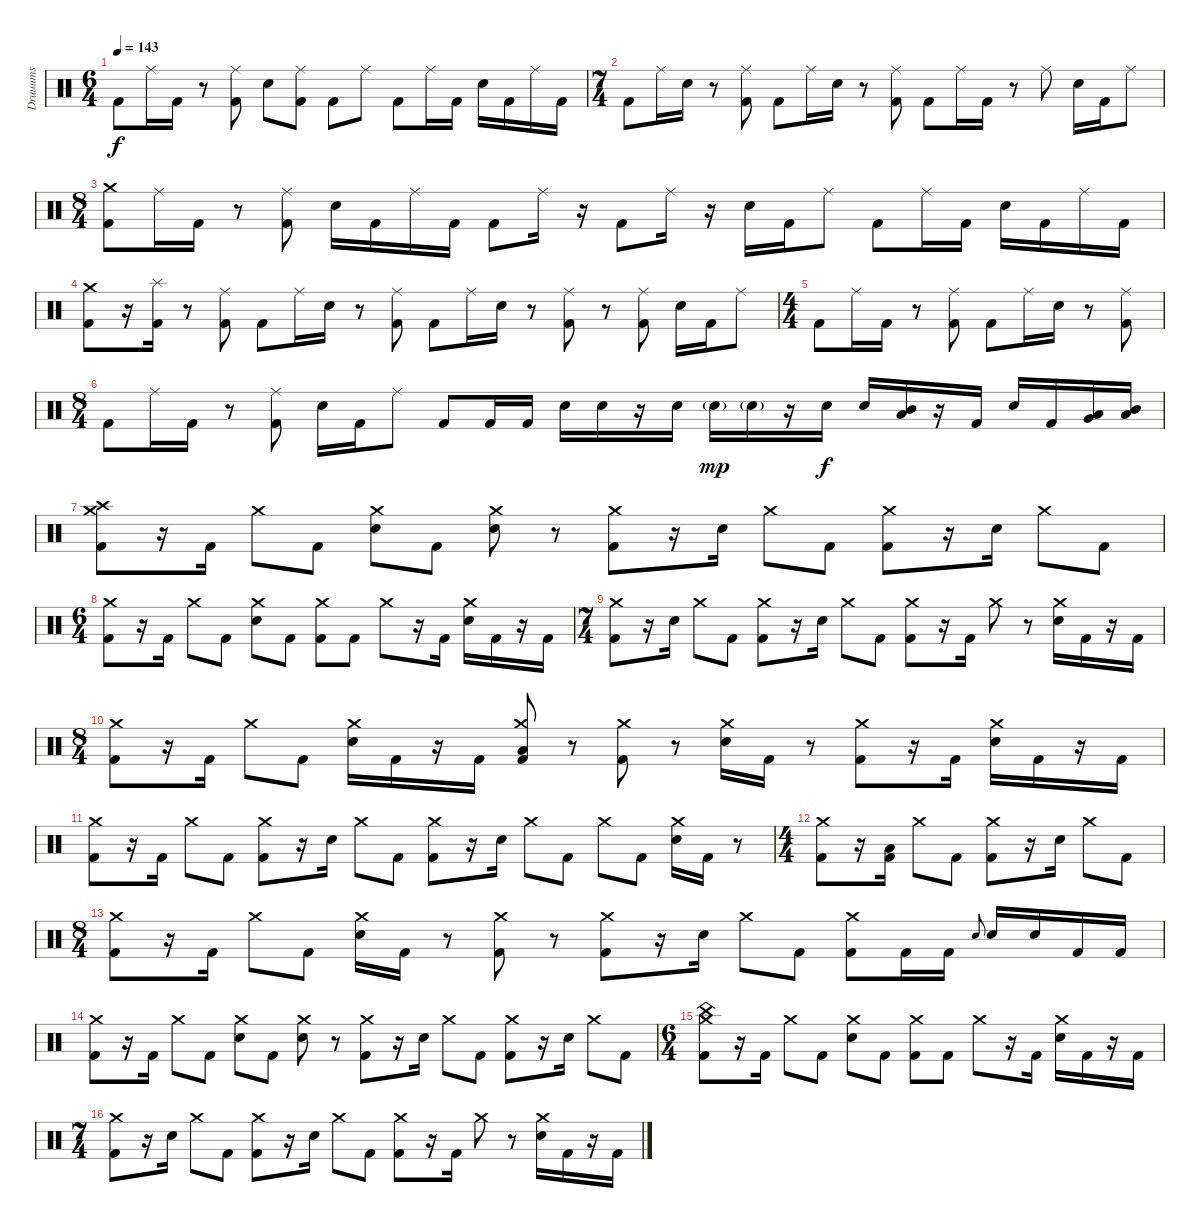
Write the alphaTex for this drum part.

\track ("Druuums" "Druuums") {instrument percussion}
\staff {score}
\articulation defaults
\ts (6 4)
\tempo 143
\clef neutral
\ks c "Kick (hit) 2".8{dy f} "Ride (middle)".16 "Kick (hit) 2".16
r.8 ("Ride (middle)" "Kick (hit) 2").8 "Electric Snare (hit)".8 ("Ride (middle)" "Kick (hit) 2").8 "Kick (hit) 2".8 "Ride (middle)".8 "Kick (hit) 2".8 "Ride (middle)".16 "Kick (hit) 2".16 "Electric Snare (hit)".16 "Kick (hit) 2".16 "Ride (middle)".16 "Kick (hit) 2".16 |
\ts (7 4)
"Kick (hit) 2".8 "Ride (middle)".16 "Electric Snare (hit)".16 r.8 ("Ride (middle)" "Kick (hit) 2").8 "Kick (hit) 2".8 "Ride (middle)".16 "Electric Snare (hit)".16 r.8 ("Ride (middle)" "Kick (hit) 2").8 "Kick (hit) 2".8 "Ride (middle)".16 "Kick (hit) 2".16 r.8 "Ride (middle)".8 "Electric Snare (hit)".16 "Kick (hit) 2".16 "Ride (middle)".8 |
\ts (8 4)
("Crash medium (hit)" "Kick (hit) 2").8 "Ride (middle)".16 "Kick (hit) 2".16 r.8 ("Ride (middle)" "Kick (hit) 2").8 "Electric Snare (hit)".16 "Kick (hit) 2".16 "Ride (middle)".16 "Kick (hit) 2".16 "Kick (hit) 2".8 "Ride (middle)".16 r.16 "Kick (hit) 2".8 "Ride (middle)".16 r.16 "Electric Snare (hit)".16 "Kick (hit) 2".16 "Ride (middle)".8 "Kick (hit) 2".8 "Ride (middle)".16 "Kick (hit) 2".16 "Electric Snare (hit)".16 "Kick (hit) 2".16 "Ride (middle)".16 "Kick (hit) 2".16 |
("Crash medium (hit)" "Kick (hit) 2").8 r.16 ("Splash (hit)" "Kick (hit) 2").16 r.8 ("Ride (middle)" "Kick (hit) 2").8 "Kick (hit) 2".8 "Ride (middle)".16 "Electric Snare (hit)".16 r.8 ("Ride (middle)" "Kick (hit) 2").8 "Kick (hit) 2".8 "Ride (middle)".16 "Electric Snare (hit)".16 r.8 ("Ride (middle)" "Kick (hit) 2").8 r.8 ("Ride (middle)" "Kick (hit) 2").8 "Electric Snare (hit)".16 "Kick (hit) 2".16 "Ride (middle)".8 |
\ts (4 4)
"Kick (hit) 2".8 "Ride (middle)".16 "Kick (hit) 2".16 r.8 ("Ride (middle)" "Kick (hit) 2").8 "Kick (hit) 2".8 "Ride (middle)".16 "Electric Snare (hit)".16 r.8 ("Ride (middle)" "Kick (hit) 2").8 |
\ts (8 4)
"Kick (hit) 2".8 "Ride (middle)".16 "Kick (hit) 2".16 r.8 ("Ride (middle)" "Kick (hit) 2").8 "Electric Snare (hit)".16 "Kick (hit) 2".16 "Ride (middle)".8 "Kick (hit) 2".8 "Kick (hit) 2".16 "Kick (hit) 2".16 "Electric Snare (hit)".16 "Electric Snare (hit)".16 r.16 "Electric Snare (hit)".16 "Electric Snare (hit)"{g}.16{dy mp} "Electric Snare (hit)"{g}.16 r.16 "Electric Snare (hit)".16{dy f} "Electric Snare (hit)".16 ("Mid Tom (hit)" "Low Tom (hit)").16 r.16 "Kick (hit) 2".16 "Electric Snare (hit)".16 "Kick (hit) 2".16 ("Very Low Tom (hit)" "Low Tom (hit)").16 ("Low Tom (hit)" "Mid Tom (hit)").16 |
("Crash medium (hit)" "Crash high (hit)" "Kick (hit) 2").8 r.16 "Kick (hit) 2".16 "Crash medium (hit)".8 "Kick (hit) 2".8 ("Crash medium (hit)" "Electric Snare (hit)").8 "Kick (hit) 2".8 ("Crash medium (hit)" "Electric Snare (hit)").8 r.8 ("Crash medium (hit)" "Kick (hit) 2").8 r.16 "Electric Snare (hit)".16 "Crash medium (hit)".8 "Kick (hit) 2".8 ("Crash medium (hit)" "Kick (hit) 2").8 r.16 "Electric Snare (hit)".16 "Crash medium (hit)".8 "Kick (hit) 2".8 |
\ts (6 4)
("Crash medium (hit)" "Kick (hit) 2").8 r.16 "Kick (hit) 2".16 "Crash medium (hit)".8 "Kick (hit) 2".8 ("Crash medium (hit)" "Electric Snare (hit)").8 "Kick (hit) 2".8 ("Crash medium (hit)" "Kick (hit) 2").8 "Kick (hit) 2".8 "Crash medium (hit)".8 r.16 "Kick (hit) 2".16 ("Crash medium (hit)" "Electric Snare (hit)").16 "Kick (hit) 2".16 r.16 "Kick (hit) 2".16 |
\ts (7 4)
("Crash medium (hit)" "Kick (hit) 2").8 r.16 "Electric Snare (hit)".16 "Crash medium (hit)".8 "Kick (hit) 2".8 ("Crash medium (hit)" "Kick (hit) 2").8 r.16 "Electric Snare (hit)".16 "Crash medium (hit)".8 "Kick (hit) 2".8 ("Crash medium (hit)" "Kick (hit) 2").8 r.16 "Kick (hit) 2".16 "Crash medium (hit)".8 r.8 ("Crash medium (hit)" "Electric Snare (hit)").16 "Kick (hit) 2".16 r.16 "Kick (hit) 2".16 |
\ts (8 4)
("Crash medium (hit)" "Kick (hit) 2").8 r.16 "Kick (hit) 2".16 "Crash medium (hit)".8 "Kick (hit) 2".8 ("Crash medium (hit)" "Electric Snare (hit)").16 "Kick (hit) 2".16 r.16 "Kick (hit) 2".16 ("Crash medium (hit)" "Low Tom (hit)" "Kick (hit) 2").8 r.8 ("Crash medium (hit)" "Kick (hit) 2").8 r.8 ("Crash medium (hit)" "Electric Snare (hit)").16 "Kick (hit) 2".16 r.8 ("Crash medium (hit)" "Kick (hit) 2").8 r.16 "Kick (hit) 2".16 ("Crash medium (hit)" "Electric Snare (hit)").16 "Kick (hit) 2".16 r.16 "Kick (hit) 2".16 |
("Crash medium (hit)" "Kick (hit) 2").8 r.16 "Kick (hit) 2".16 "Crash medium (hit)".8 "Kick (hit) 2".8 ("Crash medium (hit)" "Kick (hit) 2").8 r.16 "Electric Snare (hit)".16 "Crash medium (hit)".8 "Kick (hit) 2".8 ("Crash medium (hit)" "Kick (hit) 2").8 r.16 "Electric Snare (hit)".16 "Crash medium (hit)".8 "Kick (hit) 2".8 "Crash medium (hit)".8 "Kick (hit) 2".8 ("Crash medium (hit)" "Electric Snare (hit)").16 "Kick (hit) 2".16 r.8 |
\ts (4 4)
("Crash medium (hit)" "Kick (hit) 2").8 r.16 ("Low Tom (hit)" "Kick (hit) 2").16 "Crash medium (hit)".8 "Kick (hit) 2".8 ("Crash medium (hit)" "Kick (hit) 2").8 r.16 "Electric Snare (hit)".16 "Crash medium (hit)".8 "Kick (hit) 2".8 |
\ts (8 4)
("Crash medium (hit)" "Kick (hit) 2").8 r.16 "Kick (hit) 2".16 "Crash medium (hit)".8 "Kick (hit) 2".8 ("Crash medium (hit)" "Electric Snare (hit)").16 "Kick (hit) 2".16 r.8 ("Crash medium (hit)" "Kick (hit) 2").8 r.8 ("Crash medium (hit)" "Kick (hit) 2").8 r.16 "Electric Snare (hit)".16 "Crash medium (hit)".8 "Kick (hit) 2".8 ("Crash medium (hit)" "Kick (hit) 2").8 "Kick (hit) 2".16 "Kick (hit) 2".16 "Electric Snare (hit)".8{gr onbeat} "Electric Snare (hit)".16 "Electric Snare (hit)".16 "Kick (hit) 2".16 "Kick (hit) 2".16 |
("Crash medium (hit)" "Kick (hit) 2").8 r.16 "Kick (hit) 2".16 "Crash medium (hit)".8 "Kick (hit) 2".8 ("Crash medium (hit)" "Electric Snare (hit)").8 "Kick (hit) 2".8 ("Crash medium (hit)" "Electric Snare (hit)").8 r.8 ("Crash medium (hit)" "Kick (hit) 2").8 r.16 "Electric Snare (hit)".16 "Crash medium (hit)".8 "Kick (hit) 2".8 ("Crash medium (hit)" "Kick (hit) 2").8 r.16 "Electric Snare (hit)".16 "Crash medium (hit)".8 "Kick (hit) 2".8 |
\ts (6 4)
("Crash medium (hit)" "China (hit)" "Kick (hit) 2").8 r.16 "Kick (hit) 2".16 "Crash medium (hit)".8 "Kick (hit) 2".8 ("Crash medium (hit)" "Electric Snare (hit)").8 "Kick (hit) 2".8 ("Crash medium (hit)" "Kick (hit) 2").8 "Kick (hit) 2".8 "Crash medium (hit)".8 r.16 "Kick (hit) 2".16 ("Crash medium (hit)" "Electric Snare (hit)").16 "Kick (hit) 2".16 r.16 "Kick (hit) 2".16 |
\ts (7 4)
("Crash medium (hit)" "Kick (hit) 2").8 r.16 "Electric Snare (hit)".16 "Crash medium (hit)".8 "Kick (hit) 2".8 ("Crash medium (hit)" "Kick (hit) 2").8 r.16 "Electric Snare (hit)".16 "Crash medium (hit)".8 "Kick (hit) 2".8 ("Crash medium (hit)" "Kick (hit) 2").8 r.16 "Kick (hit) 2".16 "Crash medium (hit)".8 r.8 ("Crash medium (hit)" "Electric Snare (hit)").16 "Kick (hit) 2".16 r.16 "Kick (hit) 2".16
